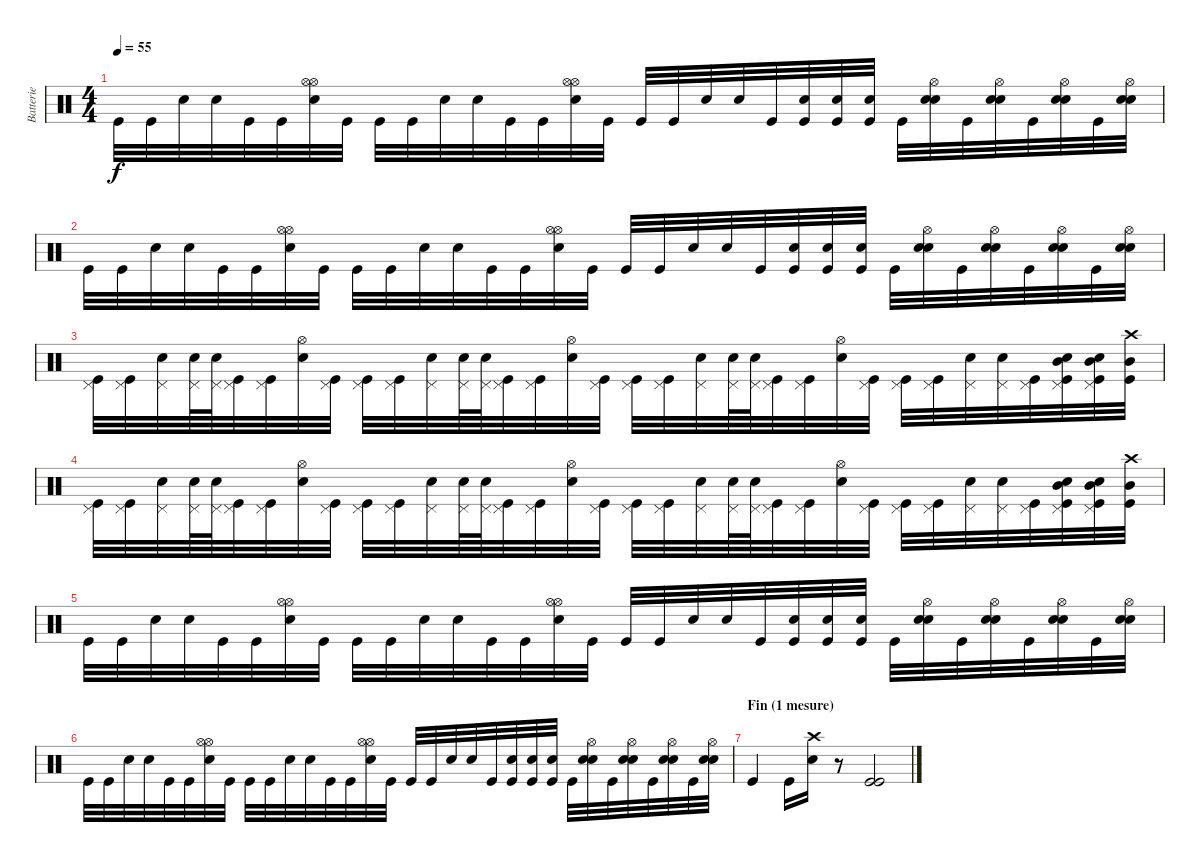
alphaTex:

\track ("Batterie" "Batterie") {instrument percussion}
\staff {score}
\articulation defaults
\ts (4 4)
\tempo 55
\clef neutral
\ks c "Kick (hit)".32{dy f} "Kick (hit)".32 "Snare (hit) 2".32 "Snare (hit) 2".32 "Kick (hit)".32 "Kick (hit)".32
("Hi-Hat (open)" "Hi-Hat (open)" "Snare (hit) 2").32 "Kick (hit)".32 "Kick (hit)".32 "Kick (hit)".32 "Snare (hit) 2".32 "Snare (hit) 2".32 "Kick (hit)".32 "Kick (hit)".32 ("Hi-Hat (open)" "Hi-Hat (open)" "Snare (hit) 2").32 "Kick (hit)".32 "Kick (hit)".32 "Kick (hit)".32 "Snare (hit) 2".32 "Snare (hit) 2".32 "Kick (hit)".32 ("Snare (hit) 2" "Kick (hit)").32 ("Snare (hit) 2" "Kick (hit)").32 ("Snare (hit) 2" "Kick (hit)").32 "Kick (hit)".32 ("Hi-Hat (open)" "Snare (hit) 2" "Snare (hit) 2").32 "Kick (hit)".32 ("Hi-Hat (open)" "Snare (hit) 2" "Snare (hit) 2").32 "Kick (hit)".32 ("Hi-Hat (open)" "Snare (hit) 2" "Snare (hit) 2").32 "Kick (hit)".32 ("Hi-Hat (open)" "Snare (hit) 2" "Snare (hit) 2").32 |
"Kick (hit)".32 "Kick (hit)".32 "Snare (hit) 2".32 "Snare (hit) 2".32 "Kick (hit)".32 "Kick (hit)".32 ("Hi-Hat (open)" "Hi-Hat (open)" "Snare (hit) 2").32 "Kick (hit)".32 "Kick (hit)".32 "Kick (hit)".32 "Snare (hit) 2".32 "Snare (hit) 2".32 "Kick (hit)".32 "Kick (hit)".32 ("Hi-Hat (open)" "Hi-Hat (open)" "Snare (hit) 2").32 "Kick (hit)".32 "Kick (hit)".32 "Kick (hit)".32 "Snare (hit) 2".32 "Snare (hit) 2".32 "Kick (hit)".32 ("Snare (hit) 2" "Kick (hit)").32 ("Snare (hit) 2" "Kick (hit)").32 ("Snare (hit) 2" "Kick (hit)").32 "Kick (hit)".32 ("Hi-Hat (open)" "Snare (hit) 2" "Snare (hit) 2").32 "Kick (hit)".32 ("Hi-Hat (open)" "Snare (hit) 2" "Snare (hit) 2").32 "Kick (hit)".32 ("Hi-Hat (open)" "Snare (hit) 2" "Snare (hit) 2").32 "Kick (hit)".32 ("Hi-Hat (open)" "Snare (hit) 2" "Snare (hit) 2").32 |
("Pedal Hi-Hat (hit)" "Kick (hit)").32 ("Pedal Hi-Hat (hit)" "Kick (hit)").32 ("Pedal Hi-Hat (hit)" "Snare (hit) 2").32 ("Pedal Hi-Hat (hit)" "Snare (hit) 2").64 ("Pedal Hi-Hat (hit)" "Snare (hit) 2").64 ("Pedal Hi-Hat (hit)" "Kick (hit)").32 ("Pedal Hi-Hat (hit)" "Kick (hit)").32 ("Hi-Hat (open)" "Snare (hit) 2").32 ("Pedal Hi-Hat (hit)" "Kick (hit)").32 ("Pedal Hi-Hat (hit)" "Kick (hit)").32 ("Pedal Hi-Hat (hit)" "Kick (hit)").32 ("Pedal Hi-Hat (hit)" "Snare (hit) 2").32 ("Pedal Hi-Hat (hit)" "Snare (hit) 2").64 ("Pedal Hi-Hat (hit)" "Snare (hit) 2").64 ("Pedal Hi-Hat (hit)" "Kick (hit)").32 ("Pedal Hi-Hat (hit)" "Kick (hit)").32 ("Hi-Hat (open)" "Snare (hit) 2").32 ("Pedal Hi-Hat (hit)" "Kick (hit)").32 ("Pedal Hi-Hat (hit)" "Kick (hit)").32 ("Pedal Hi-Hat (hit)" "Kick (hit)").32 ("Pedal Hi-Hat (hit)" "Snare (hit) 2").32 ("Pedal Hi-Hat (hit)" "Snare (hit) 2").64 ("Pedal Hi-Hat (hit)" "Snare (hit) 2").64 ("Pedal Hi-Hat (hit)" "Kick (hit)").32 ("Pedal Hi-Hat (hit)" "Kick (hit)").32 ("Hi-Hat (open)" "Snare (hit) 2").32 ("Pedal Hi-Hat (hit)" "Kick (hit)").32 ("Pedal Hi-Hat (hit)" "Kick (hit)").32 ("Pedal Hi-Hat (hit)" "Kick (hit)").32 ("Pedal Hi-Hat (hit)" "Snare (hit) 2").32 ("Pedal Hi-Hat (hit)" "Snare (hit) 2").32 ("Pedal Hi-Hat (hit)" "Kick (hit)").32 ("Pedal Hi-Hat (hit)" "Mid Tom (hit)" "Snare (hit) 2" "Kick (hit)").32 ("Pedal Hi-Hat (hit)" "Mid Tom (hit)" "Snare (hit) 2" "Kick (hit)").32 ("Crash high (hit)" "Mid Tom (hit)" "Kick (hit)").32 |
("Pedal Hi-Hat (hit)" "Kick (hit)").32 ("Pedal Hi-Hat (hit)" "Kick (hit)").32 ("Pedal Hi-Hat (hit)" "Snare (hit) 2").32 ("Pedal Hi-Hat (hit)" "Snare (hit) 2").64 ("Pedal Hi-Hat (hit)" "Snare (hit) 2").64 ("Pedal Hi-Hat (hit)" "Kick (hit)").32 ("Pedal Hi-Hat (hit)" "Kick (hit)").32 ("Hi-Hat (open)" "Snare (hit) 2").32 ("Pedal Hi-Hat (hit)" "Kick (hit)").32 ("Pedal Hi-Hat (hit)" "Kick (hit)").32 ("Pedal Hi-Hat (hit)" "Kick (hit)").32 ("Pedal Hi-Hat (hit)" "Snare (hit) 2").32 ("Pedal Hi-Hat (hit)" "Snare (hit) 2").64 ("Pedal Hi-Hat (hit)" "Snare (hit) 2").64 ("Pedal Hi-Hat (hit)" "Kick (hit)").32 ("Pedal Hi-Hat (hit)" "Kick (hit)").32 ("Hi-Hat (open)" "Snare (hit) 2").32 ("Pedal Hi-Hat (hit)" "Kick (hit)").32 ("Pedal Hi-Hat (hit)" "Kick (hit)").32 ("Pedal Hi-Hat (hit)" "Kick (hit)").32 ("Pedal Hi-Hat (hit)" "Snare (hit) 2").32 ("Pedal Hi-Hat (hit)" "Snare (hit) 2").64 ("Pedal Hi-Hat (hit)" "Snare (hit) 2").64 ("Pedal Hi-Hat (hit)" "Kick (hit)").32 ("Pedal Hi-Hat (hit)" "Kick (hit)").32 ("Hi-Hat (open)" "Snare (hit) 2").32 ("Pedal Hi-Hat (hit)" "Kick (hit)").32 ("Pedal Hi-Hat (hit)" "Kick (hit)").32 ("Pedal Hi-Hat (hit)" "Kick (hit)").32 ("Pedal Hi-Hat (hit)" "Snare (hit) 2").32 ("Pedal Hi-Hat (hit)" "Snare (hit) 2").32 ("Pedal Hi-Hat (hit)" "Kick (hit)").32 ("Pedal Hi-Hat (hit)" "Mid Tom (hit)" "Snare (hit) 2" "Kick (hit)").32 ("Pedal Hi-Hat (hit)" "Mid Tom (hit)" "Snare (hit) 2" "Kick (hit)").32 ("Crash high (hit)" "Mid Tom (hit)" "Kick (hit)").32 |
"Kick (hit)".32 "Kick (hit)".32 "Snare (hit) 2".32 "Snare (hit) 2".32 "Kick (hit)".32 "Kick (hit)".32 ("Hi-Hat (open)" "Hi-Hat (open)" "Snare (hit) 2").32 "Kick (hit)".32 "Kick (hit)".32 "Kick (hit)".32 "Snare (hit) 2".32 "Snare (hit) 2".32 "Kick (hit)".32 "Kick (hit)".32 ("Hi-Hat (open)" "Hi-Hat (open)" "Snare (hit) 2").32 "Kick (hit)".32 "Kick (hit)".32 "Kick (hit)".32 "Snare (hit) 2".32 "Snare (hit) 2".32 "Kick (hit)".32 ("Snare (hit) 2" "Kick (hit)").32 ("Snare (hit) 2" "Kick (hit)").32 ("Snare (hit) 2" "Kick (hit)").32 "Kick (hit)".32 ("Hi-Hat (open)" "Snare (hit) 2" "Snare (hit) 2").32 "Kick (hit)".32 ("Hi-Hat (open)" "Snare (hit) 2" "Snare (hit) 2").32 "Kick (hit)".32 ("Hi-Hat (open)" "Snare (hit) 2" "Snare (hit) 2").32 "Kick (hit)".32 ("Hi-Hat (open)" "Snare (hit) 2" "Snare (hit) 2").32 |
"Kick (hit)".32 "Kick (hit)".32 "Snare (hit) 2".32 "Snare (hit) 2".32 "Kick (hit)".32 "Kick (hit)".32 ("Hi-Hat (open)" "Hi-Hat (open)" "Snare (hit) 2").32 "Kick (hit)".32 "Kick (hit)".32 "Kick (hit)".32 "Snare (hit) 2".32 "Snare (hit) 2".32 "Kick (hit)".32 "Kick (hit)".32 ("Hi-Hat (open)" "Hi-Hat (open)" "Snare (hit) 2").32 "Kick (hit)".32 "Kick (hit)".32 "Kick (hit)".32 "Snare (hit) 2".32 "Snare (hit) 2".32 "Kick (hit)".32 ("Snare (hit) 2" "Kick (hit)").32 ("Snare (hit) 2" "Kick (hit)").32 ("Snare (hit) 2" "Kick (hit)").32 "Kick (hit)".32 ("Hi-Hat (open)" "Snare (hit) 2" "Snare (hit) 2").32 "Kick (hit)".32 ("Hi-Hat (open)" "Snare (hit) 2" "Snare (hit) 2").32 "Kick (hit)".32 ("Hi-Hat (open)" "Snare (hit) 2" "Snare (hit) 2").32 "Kick (hit)".32 ("Hi-Hat (open)" "Snare (hit) 2" "Snare (hit) 2").32 |
\section ("" "Fin (1 mesure)")
"Kick (hit)".4 "Kick (hit)".16 ("Crash high (hit)" "Snare (hit) 2").16 r.8 ("Kick (hit)" "Kick (hit)").2
